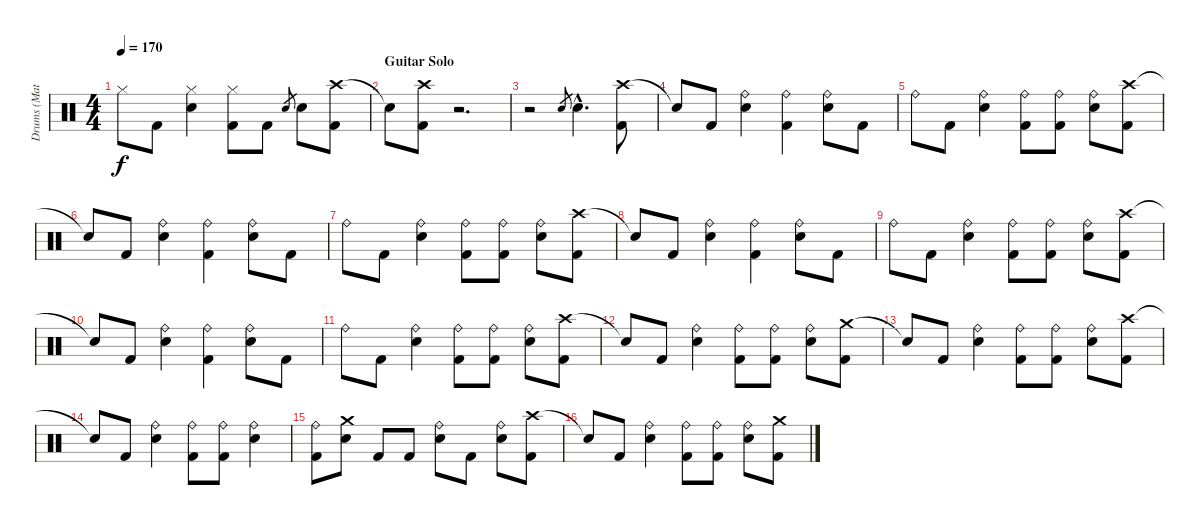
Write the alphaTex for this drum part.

\track ("Drums (Matt)" "Drums (Mat") {instrument percussion}
\staff {score}
\articulation defaults
\ts (4 4)
\tempo 170
\clef neutral
\ks c "Hi-Hat (closed)".8{dy f} "Kick (hit) 2".8
("Hi-Hat (closed)" "Snare (hit) 2").4 ("Hi-Hat (closed)" "Kick (hit) 2").8 "Kick (hit) 2".8 "Snare (hit) 2".8{gr} "Snare (hit) 2".8 ("Crash high (hit)" "Kick (hit) 2").8 |
\section ("" "Guitar Solo")
"Snare (hit)"{t}.8 ("Crash high (hit)" "Kick (hit) 2").8 r.2{d} |
r.2 "Snare (hit) 2".8{gr} "Snare (hit) 2"{hac}.4{d} ("Crash high (hit)" "Kick (hit) 2").8 |
"Snare (hit)"{t}.8 "Kick (hit) 2".8 ("Ride (bell)" "Snare (hit) 2").4 ("Ride (bell)" "Kick (hit) 2").4 ("Ride (bell)" "Snare (hit) 2").8 "Kick (hit) 2".8 |
"Ride (bell)".8 "Kick (hit) 2".8 ("Ride (bell)" "Snare (hit) 2").4 ("Ride (bell)" "Kick (hit) 2").8 ("Ride (bell)" "Kick (hit) 2").8 ("Ride (bell)" "Snare (hit) 2").8 ("Crash high (hit)" "Kick (hit) 2").8 |
"Snare (hit)"{t}.8 "Kick (hit) 2".8 ("Ride (bell)" "Snare (hit) 2").4 ("Ride (bell)" "Kick (hit) 2").4 ("Ride (bell)" "Snare (hit) 2").8 "Kick (hit) 2".8 |
"Ride (bell)".8 "Kick (hit) 2".8 ("Ride (bell)" "Snare (hit) 2").4 ("Ride (bell)" "Kick (hit) 2").8 ("Ride (bell)" "Kick (hit) 2").8 ("Ride (bell)" "Snare (hit) 2").8 ("Crash high (hit)" "Kick (hit) 2").8 |
"Snare (hit)"{t}.8 "Kick (hit) 2".8 ("Ride (bell)" "Snare (hit) 2").4 ("Ride (bell)" "Kick (hit) 2").4 ("Ride (bell)" "Snare (hit) 2").8 "Kick (hit) 2".8 |
"Ride (bell)".8 "Kick (hit) 2".8 ("Ride (bell)" "Snare (hit) 2").4 ("Ride (bell)" "Kick (hit) 2").8 ("Ride (bell)" "Kick (hit) 2").8 ("Ride (bell)" "Snare (hit) 2").8 ("Crash high (hit)" "Kick (hit) 2").8 |
"Snare (hit)"{t}.8 "Kick (hit) 2".8 ("Ride (bell)" "Snare (hit) 2").4 ("Ride (bell)" "Kick (hit) 2").4 ("Ride (bell)" "Snare (hit) 2").8 "Kick (hit) 2".8 |
"Ride (bell)".8 "Kick (hit) 2".8 ("Ride (bell)" "Snare (hit) 2").4 ("Ride (bell)" "Kick (hit) 2").8 ("Ride (bell)" "Kick (hit) 2").8 ("Ride (bell)" "Snare (hit) 2").8 ("Crash high (hit)" "Kick (hit) 2").8 |
"Snare (hit)"{t}.8 "Kick (hit) 2".8 ("Ride (bell)" "Snare (hit) 2").4 ("Ride (bell)" "Kick (hit) 2").8 ("Ride (bell)" "Kick (hit) 2").8 ("Ride (bell)" "Snare (hit) 2").8 ("Crash medium (hit)" "Kick (hit) 2").8 |
"Snare (hit)"{t}.8 "Kick (hit) 2".8 ("Ride (bell)" "Snare (hit) 2").4 ("Ride (bell)" "Kick (hit) 2").8 ("Ride (bell)" "Kick (hit) 2").8 ("Ride (bell)" "Snare (hit) 2").8 ("Crash high (hit)" "Kick (hit) 2").8 |
"Snare (hit)"{t}.8 "Kick (hit) 2".8 ("Ride (bell)" "Snare (hit) 2").4 ("Ride (bell)" "Kick (hit) 2").8 ("Ride (bell)" "Kick (hit) 2").8 ("Ride (bell)" "Snare (hit) 2").4 |
("Ride (bell)" "Kick (hit) 2").8 ("Crash medium (hit)" "Snare (hit) 2").8 "Kick (hit) 2".8 "Kick (hit) 2".8 ("Ride (bell)" "Snare (hit) 2").8 "Kick (hit) 2".8 ("Ride (bell)" "Snare (hit) 2").8 ("Crash high (hit)" "Kick (hit) 2").8 |
"Snare (hit)"{t}.8 "Kick (hit) 2".8 ("Ride (bell)" "Snare (hit) 2").4 ("Ride (bell)" "Kick (hit) 2").8 ("Ride (bell)" "Kick (hit) 2").8 ("Ride (bell)" "Snare (hit) 2").8 ("Crash medium (hit)" "Kick (hit) 2").8
